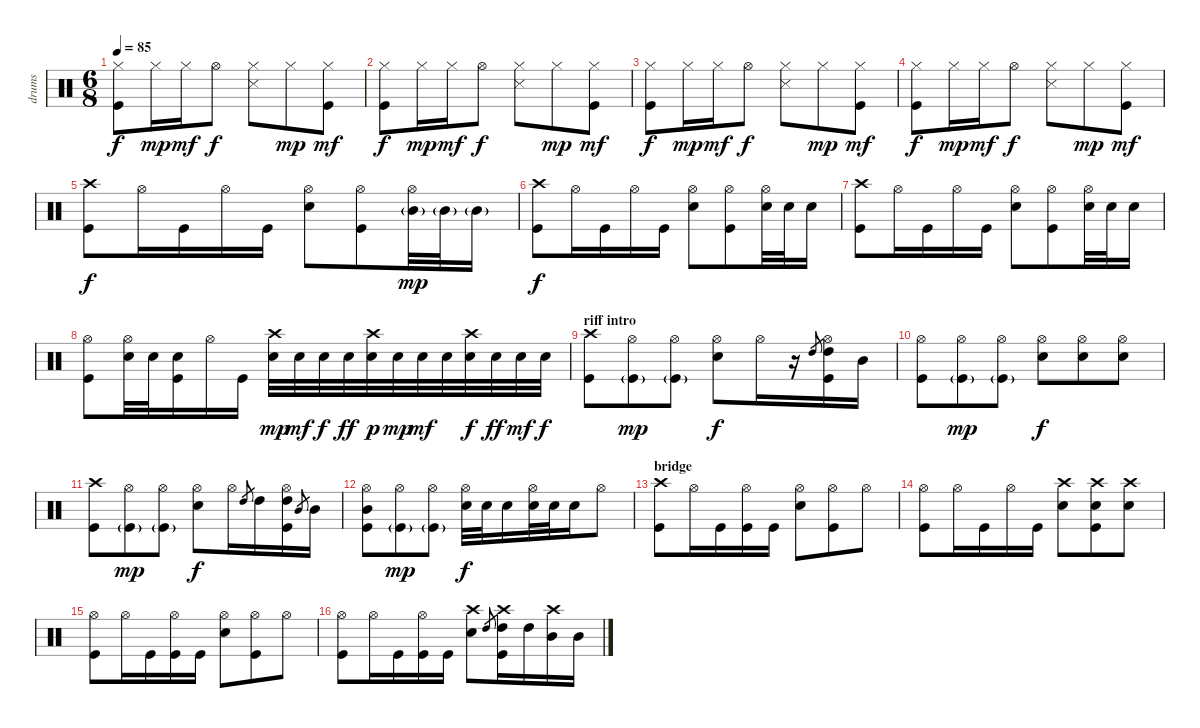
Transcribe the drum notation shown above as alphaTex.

\track ("drums" "drums") {instrument percussion}
\staff {score}
\articulation defaults
\ts (6 8)
\tempo 85
\clef neutral
\ks c
("Hi-Hat (closed)" "Kick (hit)").8{dy f} "Hi-Hat (closed)".16{dy mp} "Hi-Hat (closed)".16{dy mf} "Hi-Hat (open)".8{dy f} ("Hi-Hat (closed)" "Snare (side stick) 3").8 "Hi-Hat (closed)".8{dy mp} ("Hi-Hat (closed)" "Kick (hit)").8{dy mf} |
("Hi-Hat (closed)" "Kick (hit)").8{dy f} "Hi-Hat (closed)".16{dy mp} "Hi-Hat (closed)".16{dy mf} "Hi-Hat (open)".8{dy f} ("Hi-Hat (closed)" "Snare (side stick) 3").8 "Hi-Hat (closed)".8{dy mp} ("Hi-Hat (closed)" "Kick (hit)").8{dy mf} |
("Hi-Hat (closed)" "Kick (hit)").8{dy f} "Hi-Hat (closed)".16{dy mp} "Hi-Hat (closed)".16{dy mf} "Hi-Hat (open)".8{dy f} ("Hi-Hat (closed)" "Snare (side stick) 3").8 "Hi-Hat (closed)".8{dy mp} ("Hi-Hat (closed)" "Kick (hit)").8{dy mf} |
("Hi-Hat (closed)" "Kick (hit)").8{dy f} "Hi-Hat (closed)".16{dy mp} "Hi-Hat (closed)".16{dy mf} "Hi-Hat (open)".8{dy f} ("Hi-Hat (closed)" "Snare (side stick) 3").8 "Hi-Hat (closed)".8{dy mp} ("Hi-Hat (closed)" "Kick (hit)").8{dy mf} |
("Crash high (hit)" "Kick (hit)").8{dy f} "Hi-Hat (open)".16 "Kick (hit)".16 "Hi-Hat (open)".16 "Kick (hit)".16 ("Hi-Hat (open)" "Electric Snare (hit)").8 ("Hi-Hat (open)" "Kick (hit)").8 ("Hi-Hat (open)" "Mid Tom (hit)"{g}).32{dy mp} "Mid Tom (hit)"{g}.32 "Mid Tom (hit)"{g}.16 |
("Crash high (hit)" "Kick (hit)").8{dy f} "Hi-Hat (open)".16 "Kick (hit)".16 "Hi-Hat (open)".16 "Kick (hit)".16 ("Hi-Hat (open)" "Electric Snare (hit)").8 ("Hi-Hat (open)" "Kick (hit)").8 ("Hi-Hat (open)" "Electric Snare (hit)").32 "Electric Snare (hit)".32 "Electric Snare (hit)".16 |
("Crash high (hit)" "Kick (hit)").8 "Hi-Hat (open)".16 "Kick (hit)".16 "Hi-Hat (open)".16 "Kick (hit)".16 ("Hi-Hat (open)" "Electric Snare (hit)").8 ("Hi-Hat (open)" "Kick (hit)").8 ("Hi-Hat (open)" "Electric Snare (hit)").32 "Electric Snare (hit)".32 "Electric Snare (hit)".16 |
("Hi-Hat (open)" "Kick (hit)").8 ("Hi-Hat (open)" "Electric Snare (hit)").32 "Electric Snare (hit)".32 ("Electric Snare (hit)" "Kick (hit)").16 "Hi-Hat (open)".16 "Kick (hit)".16 ("Crash high (hit)" "Electric Snare (hit)").32{dy mp} "Electric Snare (hit)".32{dy mf} "Electric Snare (hit)".32{dy f} "Electric Snare (hit)".32{dy ff} ("Crash high (hit)" "Electric Snare (hit)").32{dy p} "Electric Snare (hit)".32{dy mp} "Electric Snare (hit)".32{dy mf} "Electric Snare (hit)".32 ("Crash high (hit)" "Electric Snare (hit)").32{dy f} "Electric Snare (hit)".32{dy ff} "Electric Snare (hit)".32{dy mf} "Electric Snare (hit)".32{dy f} |
\section ("" "riff intro")
("Crash high (hit)" "Kick (hit)").8 ("Hi-Hat (open)" "Kick (hit)"{g}).8{dy mp} ("Hi-Hat (open)" "Kick (hit)"{g}).8 ("Hi-Hat (open)" "Electric Snare (hit)").8{dy f} "Hi-Hat (open)".16 r.16 "High Tom (hit)".8{gr} ("Hi-Hat (open)" "High Tom (hit)" "Kick (hit)").16 "Mid Tom (hit)".16 |
("Hi-Hat (open)" "Kick (hit)").8 ("Hi-Hat (open)" "Kick (hit)"{g}).8{dy mp} ("Hi-Hat (open)" "Kick (hit)"{g}).8 ("Hi-Hat (open)" "Electric Snare (hit)").8{dy f} ("Hi-Hat (open)" "Electric Snare (hit)").8 ("Hi-Hat (open)" "Electric Snare (hit)").8 |
("Crash high (hit)" "Kick (hit)").8 ("Hi-Hat (open)" "Kick (hit)"{g}).8{dy mp} ("Hi-Hat (open)" "Kick (hit)"{g}).8 ("Hi-Hat (open)" "Electric Snare (hit)").8{dy f} "Hi-Hat (open)".16 "High Tom (hit)".8{gr} "High Tom (hit)".16 ("Hi-Hat (open)" "High Tom (hit)" "Kick (hit)").16 "Mid Tom (hit)".8{gr} "Mid Tom (hit)".16 |
("Hi-Hat (open)" "Mid Tom (hit)" "Kick (hit)").8 ("Hi-Hat (open)" "Kick (hit)"{g}).8{dy mp} ("Hi-Hat (open)" "Kick (hit)"{g}).8 ("Hi-Hat (open)" "Electric Snare (hit)").32{dy f} "Electric Snare (hit)".32 "Electric Snare (hit)".16 ("Hi-Hat (open)" "Electric Snare (hit)").32 "Electric Snare (hit)".32 "Electric Snare (hit)".16 "Hi-Hat (open)".8 |
\section ("" "bridge")
("Crash high (hit)" "Kick (hit)").8 "Hi-Hat (open)".16 "Kick (hit)".16 ("Hi-Hat (open)" "Kick (hit)").16 "Kick (hit)".16 ("Hi-Hat (open)" "Electric Snare (hit)").8 ("Hi-Hat (open)" "Kick (hit)").8 "Hi-Hat (open)".8 |
("Hi-Hat (open)" "Kick (hit)").8 "Hi-Hat (open)".16 "Kick (hit)".16 "Hi-Hat (open)".16 "Kick (hit)".16 ("Crash high (hit)" "Electric Snare (hit)").8 ("Crash high (hit)" "Electric Snare (hit)" "Kick (hit)").8 ("Crash high (hit)" "Electric Snare (hit)").8 |
("Hi-Hat (open)" "Kick (hit)").8 "Hi-Hat (open)".16 "Kick (hit)".16 ("Hi-Hat (open)" "Kick (hit)").16 "Kick (hit)".16 ("Hi-Hat (open)" "Electric Snare (hit)").8 ("Hi-Hat (open)" "Kick (hit)").8 "Hi-Hat (open)".8 |
("Hi-Hat (open)" "Kick (hit)").8 "Hi-Hat (open)".16 "Kick (hit)".16 ("Hi-Hat (open)" "Kick (hit)").16 "Kick (hit)".16 ("Crash high (hit)" "Electric Snare (hit)").8 "High Tom (hit)".8{gr} ("Crash high (hit)" "High Tom (hit)" "Kick (hit)").16 "High Tom (hit)".16 ("Crash high (hit)" "Mid Tom (hit)").16 "Mid Tom (hit)".16
